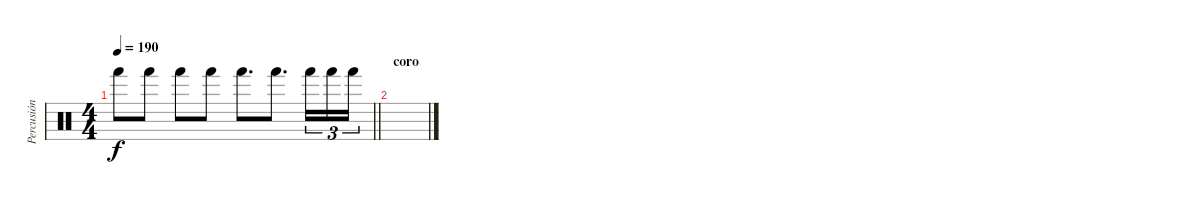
\track ("Percusión" "Percusión") {instrument percussion}
\staff {score}
\articulation defaults
\ts (4 4)
\tempo 190
\clef neutral
\barLineRight lightlight
\ks c "Hand (hit)".8{dy f} "Hand (hit)".8 "Hand (hit)".8 "Hand (hit)".8 "Hand (hit)".8{d} "Hand (hit)".8{d} "Hand (hit)".16{tu (3 2)} "Hand (hit)".16{tu (3 2)} "Hand (hit)".16{tu (3 2)}
|
\section ("" "coro")
